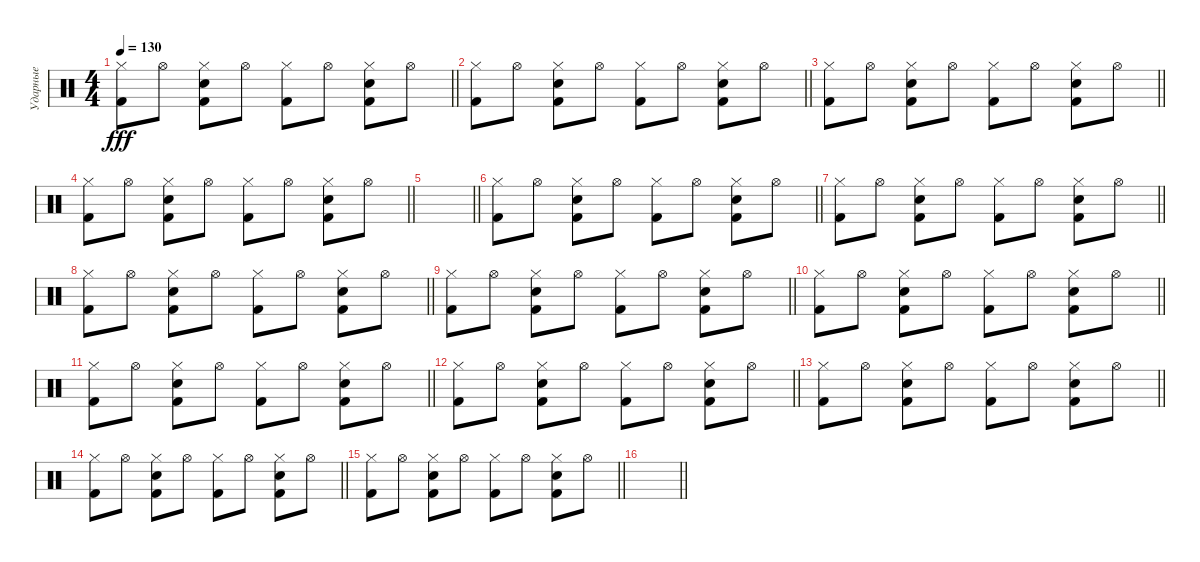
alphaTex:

\track ("Ударные" "Ударные") {instrument percussion}
\staff {score}
\articulation defaults
\ts (4 4)
\tempo 130
\clef neutral
\barLineRight lightlight
\ks c
("Kick (hit) 2" "Hi-Hat (closed)").8{dy fff} "Hi-Hat (open)".8 ("Kick (hit) 2" "Hi-Hat (closed)" "Electric Snare (hit)").8 "Hi-Hat (open)".8 ("Kick (hit) 2" "Hi-Hat (closed)").8 "Hi-Hat (open)".8 ("Kick (hit) 2" "Hi-Hat (closed)" "Electric Snare (hit)").8 "Hi-Hat (open)".8 |
\barLineRight lightlight
("Kick (hit) 2" "Hi-Hat (closed)").8 "Hi-Hat (open)".8 ("Kick (hit) 2" "Hi-Hat (closed)" "Electric Snare (hit)").8 "Hi-Hat (open)".8 ("Kick (hit) 2" "Hi-Hat (closed)").8 "Hi-Hat (open)".8 ("Kick (hit) 2" "Hi-Hat (closed)" "Electric Snare (hit)").8 "Hi-Hat (open)".8 |
\barLineRight lightlight
("Kick (hit) 2" "Hi-Hat (closed)").8 "Hi-Hat (open)".8 ("Kick (hit) 2" "Hi-Hat (closed)" "Electric Snare (hit)").8 "Hi-Hat (open)".8 ("Kick (hit) 2" "Hi-Hat (closed)").8 "Hi-Hat (open)".8 ("Kick (hit) 2" "Hi-Hat (closed)" "Electric Snare (hit)").8 "Hi-Hat (open)".8 |
\barLineRight lightlight
("Kick (hit) 2" "Hi-Hat (closed)").8 "Hi-Hat (open)".8 ("Kick (hit) 2" "Hi-Hat (closed)" "Electric Snare (hit)").8 "Hi-Hat (open)".8 ("Kick (hit) 2" "Hi-Hat (closed)").8 "Hi-Hat (open)".8 ("Kick (hit) 2" "Hi-Hat (closed)" "Electric Snare (hit)").8 "Hi-Hat (open)".8 |
\barLineRight lightlight
|
\barLineRight lightlight
("Kick (hit) 2" "Hi-Hat (closed)").8 "Hi-Hat (open)".8 ("Kick (hit) 2" "Hi-Hat (closed)" "Electric Snare (hit)").8 "Hi-Hat (open)".8 ("Kick (hit) 2" "Hi-Hat (closed)").8 "Hi-Hat (open)".8 ("Kick (hit) 2" "Hi-Hat (closed)" "Electric Snare (hit)").8 "Hi-Hat (open)".8 |
\barLineRight lightlight
("Kick (hit) 2" "Hi-Hat (closed)").8 "Hi-Hat (open)".8 ("Kick (hit) 2" "Hi-Hat (closed)" "Electric Snare (hit)").8 "Hi-Hat (open)".8 ("Kick (hit) 2" "Hi-Hat (closed)").8 "Hi-Hat (open)".8 ("Kick (hit) 2" "Hi-Hat (closed)" "Electric Snare (hit)").8 "Hi-Hat (open)".8 |
\barLineRight lightlight
("Kick (hit) 2" "Hi-Hat (closed)").8 "Hi-Hat (open)".8 ("Kick (hit) 2" "Hi-Hat (closed)" "Electric Snare (hit)").8 "Hi-Hat (open)".8 ("Kick (hit) 2" "Hi-Hat (closed)").8 "Hi-Hat (open)".8 ("Kick (hit) 2" "Hi-Hat (closed)" "Electric Snare (hit)").8 "Hi-Hat (open)".8 |
\barLineRight lightlight
("Kick (hit) 2" "Hi-Hat (closed)").8 "Hi-Hat (open)".8 ("Kick (hit) 2" "Hi-Hat (closed)" "Electric Snare (hit)").8 "Hi-Hat (open)".8 ("Kick (hit) 2" "Hi-Hat (closed)").8 "Hi-Hat (open)".8 ("Kick (hit) 2" "Hi-Hat (closed)" "Electric Snare (hit)").8 "Hi-Hat (open)".8 |
\barLineRight lightlight
("Kick (hit) 2" "Hi-Hat (closed)").8 "Hi-Hat (open)".8 ("Kick (hit) 2" "Hi-Hat (closed)" "Electric Snare (hit)").8 "Hi-Hat (open)".8 ("Kick (hit) 2" "Hi-Hat (closed)").8 "Hi-Hat (open)".8 ("Kick (hit) 2" "Hi-Hat (closed)" "Electric Snare (hit)").8 "Hi-Hat (open)".8 |
\barLineRight lightlight
("Kick (hit) 2" "Hi-Hat (closed)").8 "Hi-Hat (open)".8 ("Kick (hit) 2" "Hi-Hat (closed)" "Electric Snare (hit)").8 "Hi-Hat (open)".8 ("Kick (hit) 2" "Hi-Hat (closed)").8 "Hi-Hat (open)".8 ("Kick (hit) 2" "Hi-Hat (closed)" "Electric Snare (hit)").8 "Hi-Hat (open)".8 |
\barLineRight lightlight
("Kick (hit) 2" "Hi-Hat (closed)").8 "Hi-Hat (open)".8 ("Kick (hit) 2" "Hi-Hat (closed)" "Electric Snare (hit)").8 "Hi-Hat (open)".8 ("Kick (hit) 2" "Hi-Hat (closed)").8 "Hi-Hat (open)".8 ("Kick (hit) 2" "Hi-Hat (closed)" "Electric Snare (hit)").8 "Hi-Hat (open)".8 |
\barLineRight lightlight
("Kick (hit) 2" "Hi-Hat (closed)").8 "Hi-Hat (open)".8 ("Kick (hit) 2" "Hi-Hat (closed)" "Electric Snare (hit)").8 "Hi-Hat (open)".8 ("Kick (hit) 2" "Hi-Hat (closed)").8 "Hi-Hat (open)".8 ("Kick (hit) 2" "Hi-Hat (closed)" "Electric Snare (hit)").8 "Hi-Hat (open)".8 |
\barLineRight lightlight
("Kick (hit) 2" "Hi-Hat (closed)").8 "Hi-Hat (open)".8 ("Kick (hit) 2" "Hi-Hat (closed)" "Electric Snare (hit)").8 "Hi-Hat (open)".8 ("Kick (hit) 2" "Hi-Hat (closed)").8 "Hi-Hat (open)".8 ("Kick (hit) 2" "Hi-Hat (closed)" "Electric Snare (hit)").8 "Hi-Hat (open)".8 |
\barLineRight lightlight
("Kick (hit) 2" "Hi-Hat (closed)").8 "Hi-Hat (open)".8 ("Kick (hit) 2" "Hi-Hat (closed)" "Electric Snare (hit)").8 "Hi-Hat (open)".8 ("Kick (hit) 2" "Hi-Hat (closed)").8 "Hi-Hat (open)".8 ("Kick (hit) 2" "Hi-Hat (closed)" "Electric Snare (hit)").8 "Hi-Hat (open)".8 |
\barLineRight lightlight
